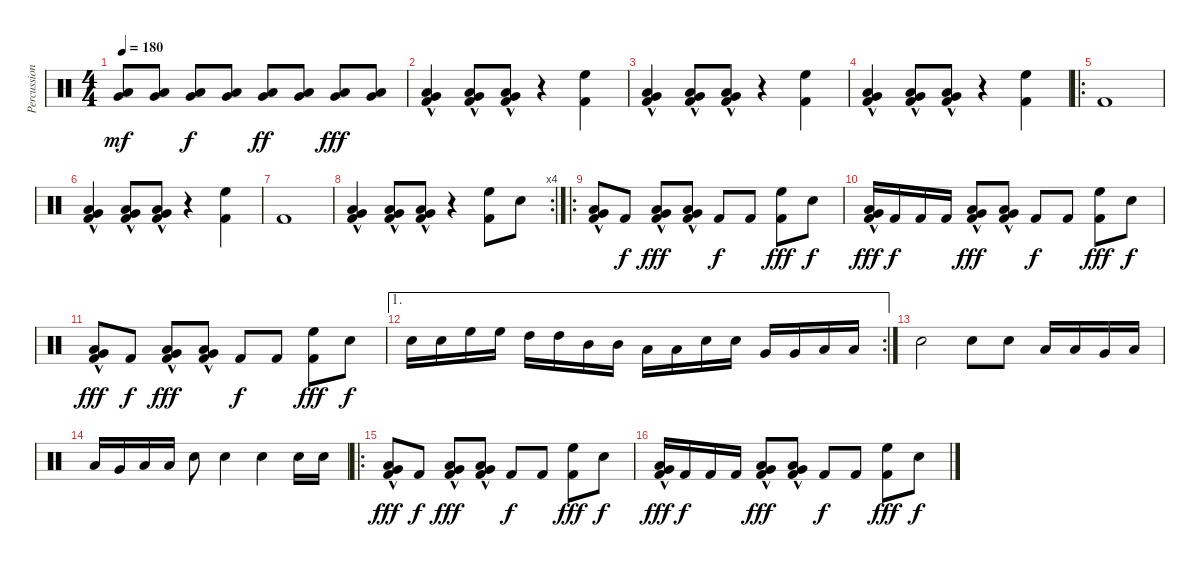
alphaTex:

\track ("Percussion" "Percussion") {instrument percussion}
\staff {score}
\articulation defaults
\ts (4 4)
\tempo 180
\clef neutral
\ks c
("Very Low Tom (hit)" "Low Floor Tom (hit)").8{dy mf} ("Very Low Tom (hit)" "Low Floor Tom (hit)").8 ("Very Low Tom (hit)" "Low Floor Tom (hit)").8{dy f} ("Very Low Tom (hit)" "Low Floor Tom (hit)").8 ("Very Low Tom (hit)" "Low Floor Tom (hit)").8{dy ff} ("Very Low Tom (hit)" "Low Floor Tom (hit)").8 ("Very Low Tom (hit)" "Low Floor Tom (hit)").8{dy fff} ("Very Low Tom (hit)" "Low Floor Tom (hit)").8 |
("Low Tom (hit)" "Very Low Tom (hit)"{hac} "Kick (hit) 2").4 ("Low Tom (hit)" "Very Low Tom (hit)"{hac} "Kick (hit) 2").8 ("Low Tom (hit)" "Very Low Tom (hit)"{hac} "Kick (hit) 2").8 r.4 ("High Floor Tom (hit)" "Kick (hit) 2").4 |
("Low Tom (hit)" "Very Low Tom (hit)"{hac} "Kick (hit) 2").4 ("Low Tom (hit)" "Very Low Tom (hit)"{hac} "Kick (hit) 2").8 ("Low Tom (hit)" "Very Low Tom (hit)"{hac} "Kick (hit) 2").8 r.4 ("High Floor Tom (hit)" "Kick (hit) 2").4 |
("Low Tom (hit)" "Very Low Tom (hit)"{hac} "Kick (hit) 2").4 ("Low Tom (hit)" "Very Low Tom (hit)"{hac} "Kick (hit) 2").8 ("Low Tom (hit)" "Very Low Tom (hit)"{hac} "Kick (hit) 2").8 r.4 ("High Floor Tom (hit)" "Kick (hit) 2").4 |
\ro "Kick (hit) 2".1
|
("Low Tom (hit)" "Very Low Tom (hit)"{hac} "Kick (hit) 2").4 ("Low Tom (hit)" "Very Low Tom (hit)"{hac} "Kick (hit) 2").8 ("Low Tom (hit)" "Very Low Tom (hit)"{hac} "Kick (hit) 2").8 r.4 ("High Floor Tom (hit)" "Kick (hit) 2").4 |
"Kick (hit) 2".1 |
\rc 4
("Low Tom (hit)" "Very Low Tom (hit)"{hac} "Kick (hit) 2").4 ("Low Tom (hit)" "Very Low Tom (hit)"{hac} "Kick (hit) 2").8 ("Low Tom (hit)" "Very Low Tom (hit)"{hac} "Kick (hit) 2").8 r.4 ("High Floor Tom (hit)" "Kick (hit) 2").8 "Snare (hit) 2".8 |
\ro
("Low Tom (hit)"{hac} "Very Low Tom (hit)"{hac} "Kick (hit) 2").8 "Kick (hit) 2".8{dy f} ("Low Tom (hit)"{hac} "Very Low Tom (hit)"{hac} "Kick (hit) 2").8{dy fff} ("Low Tom (hit)"{hac} "Very Low Tom (hit)"{hac} "Kick (hit) 2").8 "Kick (hit) 2".8{dy f} "Kick (hit) 2".8 ("High Floor Tom (hit)" "Kick (hit) 2").8{dy fff} "Snare (hit) 2".8{dy f} |
("Low Tom (hit)"{hac} "Very Low Tom (hit)"{hac} "Kick (hit) 2").16{dy fff} "Kick (hit) 2".16{dy f} "Kick (hit) 2".16 "Kick (hit) 2".16 ("Low Tom (hit)"{hac} "Very Low Tom (hit)"{hac} "Kick (hit) 2").8{dy fff} ("Low Tom (hit)"{hac} "Very Low Tom (hit)"{hac} "Kick (hit) 2").8 "Kick (hit) 2".8{dy f} "Kick (hit) 2".8 ("High Floor Tom (hit)" "Kick (hit) 2").8{dy fff} "Snare (hit) 2".8{dy f} |
("Low Tom (hit)"{hac} "Very Low Tom (hit)"{hac} "Kick (hit) 2").8{dy fff} "Kick (hit) 2".8{dy f} ("Low Tom (hit)"{hac} "Very Low Tom (hit)"{hac} "Kick (hit) 2").8{dy fff} ("Low Tom (hit)"{hac} "Very Low Tom (hit)"{hac} "Kick (hit) 2").8 "Kick (hit) 2".8{dy f} "Kick (hit) 2".8 ("High Floor Tom (hit)" "Kick (hit) 2").8{dy fff} "Snare (hit) 2".8{dy f} |
\ae 1
\rc 2 "Snare (hit) 2".16 "Snare (hit) 2".16 "High Floor Tom (hit)".16 "High Floor Tom (hit)".16 "High Tom (hit)".16 "High Tom (hit)".16 "Mid Tom (hit)".16 "Mid Tom (hit)".16 "Low Tom (hit)".16 "Low Tom (hit)".16 "Snare (hit) 2".16 "Snare (hit) 2".16 "Very Low Tom (hit)".16 "Very Low Tom (hit)".16 "Low Floor Tom (hit)".16 "Low Floor Tom (hit)".16
|
"Snare (hit) 2".2 "Snare (hit) 2".8 "Snare (hit) 2".8 "Low Tom (hit)".16 "Low Tom (hit)".16 "Very Low Tom (hit)".16 "Low Floor Tom (hit)".16 |
"Low Floor Tom (hit)".16 "Very Low Tom (hit)".16 "Low Tom (hit)".16 "Low Tom (hit)".16 "Snare (hit) 2".8 "Snare (hit) 2".4 "Snare (hit) 2".4 "Snare (hit) 2".16 "Snare (hit) 2".16 |
\ro
("Low Tom (hit)"{hac} "Very Low Tom (hit)"{hac} "Kick (hit) 2").8{dy fff} "Kick (hit) 2".8{dy f} ("Low Tom (hit)"{hac} "Very Low Tom (hit)"{hac} "Kick (hit) 2").8{dy fff} ("Low Tom (hit)"{hac} "Very Low Tom (hit)"{hac} "Kick (hit) 2").8 "Kick (hit) 2".8{dy f} "Kick (hit) 2".8 ("High Floor Tom (hit)" "Kick (hit) 2").8{dy fff} "Snare (hit) 2".8{dy f} |
("Low Tom (hit)"{hac} "Very Low Tom (hit)"{hac} "Kick (hit) 2").16{dy fff} "Kick (hit) 2".16{dy f} "Kick (hit) 2".16 "Kick (hit) 2".16 ("Low Tom (hit)"{hac} "Very Low Tom (hit)"{hac} "Kick (hit) 2").8{dy fff} ("Low Tom (hit)"{hac} "Very Low Tom (hit)"{hac} "Kick (hit) 2").8 "Kick (hit) 2".8{dy f} "Kick (hit) 2".8 ("High Floor Tom (hit)" "Kick (hit) 2").8{dy fff} "Snare (hit) 2".8{dy f}
